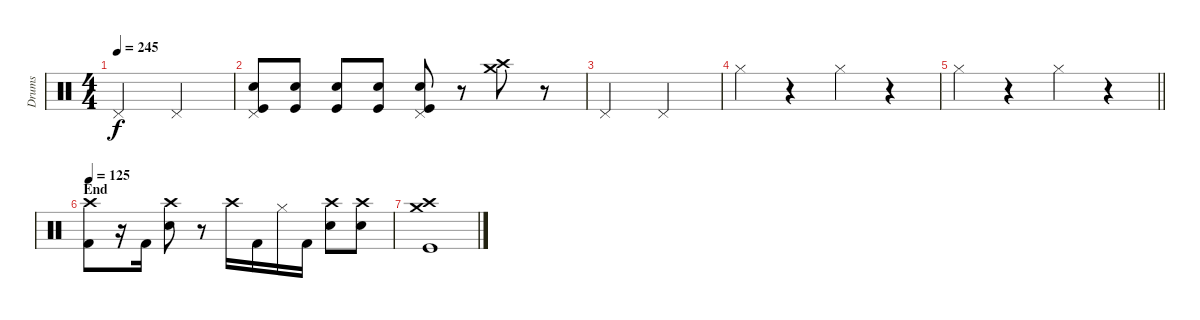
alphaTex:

\track ("Drums" "Drums") {instrument percussion}
\staff {score}
\articulation defaults
\ts (4 4)
\tempo 245
\clef neutral
\ks c "Pedal Hi-Hat (hit)".2{dy f} "Pedal Hi-Hat (hit)".2
|
("Pedal Hi-Hat (hit)" "Electric Snare (hit)" "Kick (hit)").8 ("Electric Snare (hit)" "Kick (hit)").8 ("Electric Snare (hit)" "Kick (hit)").8 ("Electric Snare (hit)" "Kick (hit)").8 ("Pedal Hi-Hat (hit)" "Electric Snare (hit)" "Kick (hit)").8 r.8 ("Crash high (hit)" "Crash medium (hit)").8 r.8 |
"Pedal Hi-Hat (hit)".2 "Pedal Hi-Hat (hit)".2 |
"Hi-Hat (closed)".4 r.4 "Hi-Hat (closed)".4 r.4 |
\barLineRight lightlight "Hi-Hat (closed)".4
r.4 "Hi-Hat (closed)".4 r.4 |
\section ("" "End")
\tempo 120
\tempo 125
("Crash high (hit)" "Kick (hit) 2").8 r.16 "Kick (hit) 2".16 ("Crash high (hit)" "Snare (hit) 2").8 r.8 "Crash high (hit)".16 "Kick (hit) 2".16 "Hi-Hat (closed)".16 "Kick (hit) 2".16 ("Crash high (hit)" "Snare (hit) 2").8 ("Crash high (hit)" "Snare (hit) 2").8 |
("Crash high (hit)" "Crash medium (hit)" "Kick (hit)").1
